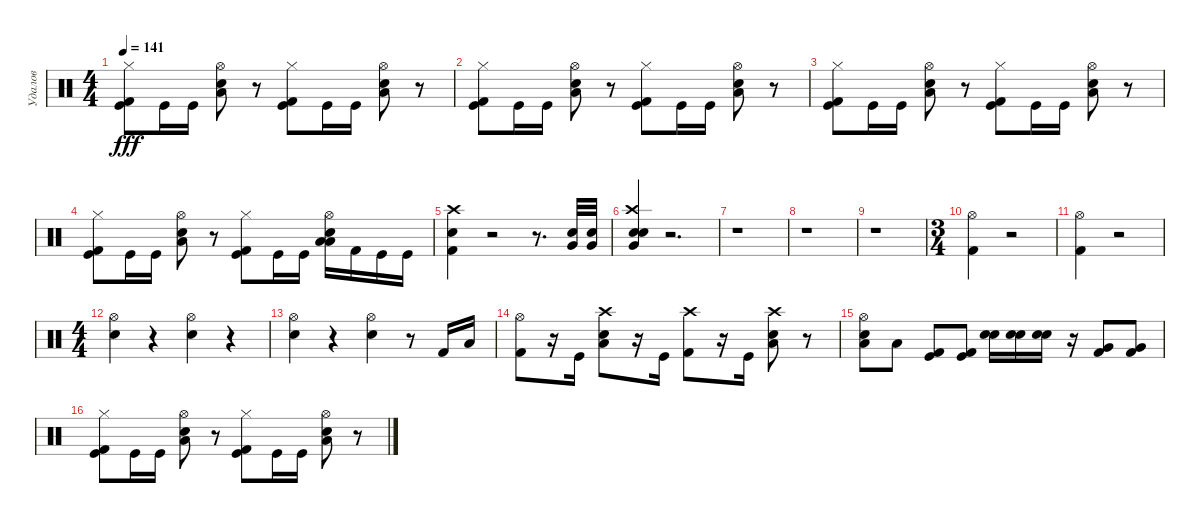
\track ("Удалов" "Удалов") {instrument percussion}
\staff {score}
\articulation defaults
\ts (4 4)
\tempo 141
\clef neutral
\ks c
("Hi-Hat (closed)" "Kick (hit)" "Kick (hit) 2").8{dy fff} "Kick (hit)".16 "Kick (hit)".16 ("Hi-Hat (open)" "Low Tom (hit)" "Snare (hit) 2").8 r.8 ("Hi-Hat (closed)" "Kick (hit)" "Kick (hit) 2").8 "Kick (hit)".16 "Kick (hit)".16 ("Hi-Hat (open)" "Low Tom (hit)" "Snare (hit) 2").8 r.8 |
("Hi-Hat (closed)" "Kick (hit)" "Kick (hit) 2").8 "Kick (hit)".16 "Kick (hit)".16 ("Hi-Hat (open)" "Low Tom (hit)" "Snare (hit) 2").8 r.8 ("Hi-Hat (closed)" "Kick (hit)" "Kick (hit) 2").8 "Kick (hit)".16 "Kick (hit)".16 ("Hi-Hat (open)" "Low Tom (hit)" "Snare (hit) 2").8 r.8 |
("Hi-Hat (closed)" "Kick (hit)" "Kick (hit) 2").8 "Kick (hit)".16 "Kick (hit)".16 ("Hi-Hat (open)" "Low Tom (hit)" "Snare (hit) 2").8 r.8 ("Hi-Hat (closed)" "Kick (hit)" "Kick (hit) 2").8 "Kick (hit)".16 "Kick (hit)".16 ("Hi-Hat (open)" "Low Tom (hit)" "Snare (hit) 2").8 r.8 |
("Hi-Hat (closed)" "Kick (hit)" "Kick (hit) 2").8 "Kick (hit)".16 "Kick (hit)".16 ("Hi-Hat (open)" "Low Tom (hit)" "Snare (hit) 2").8 r.8 ("Hi-Hat (closed)" "Kick (hit)" "Kick (hit) 2").8 "Kick (hit)".16 "Kick (hit)".16 ("Low Floor Tom (hit)" "Hi-Hat (open)" "Low Tom (hit)" "Snare (hit) 2").16 "Kick (hit) 2".16 "Kick (hit)".16 "Kick (hit)".16 |
("Crash high (hit)" "Snare (hit) 2" "Kick (hit) 2").4 r.2 r.8{d} ("Electric Snare (hit)" "Very Low Tom (hit)").32 ("Electric Snare (hit)" "Very Low Tom (hit)").32 |
("Crash high (hit)" "Very Low Tom (hit)" "Snare (hit) 2" "Electric Snare (hit)").4 r.2{d} |
r.1 |
r.1 |
r.1 |
\ts (3 4)
("Hi-Hat (open)" "Kick (hit) 2").4 r.2 |
("Hi-Hat (open)" "Kick (hit) 2").4 r.2 |
\ts (4 4)
("Hi-Hat (open)" "Snare (hit) 2").4 r.4 ("Hi-Hat (open)" "Snare (hit) 2").4 r.4 |
("Hi-Hat (open)" "Snare (hit) 2").4 r.4 ("Hi-Hat (open)" "Snare (hit) 2").4 r.8 "Kick (hit) 2".16 "Low Floor Tom (hit)".16 |
("Kick (hit) 2" "Hi-Hat (open)").8 r.16 "Kick (hit)".16 ("Low Tom (hit)" "Snare (hit) 2" "Crash high (hit)").8 r.16 "Kick (hit)".16 ("Kick (hit) 2" "Crash high (hit)").8 r.16 "Kick (hit)".16 ("Low Tom (hit)" "Snare (hit) 2" "Crash high (hit)").8 r.8 |
("Hi-Hat (open)" "Snare (hit) 2" "Low Tom (hit)").8 "Low Floor Tom (hit)".8 ("Kick (hit)" "Kick (hit) 2").8 ("Kick (hit)" "Kick (hit) 2").8 ("Electric Snare (hit)" "Snare (hit) 2").16 ("Electric Snare (hit)" "Snare (hit) 2").16 ("Snare (hit) 2" "Electric Snare (hit)").16 r.16 ("Kick (hit) 2" "Very Low Tom (hit)").8 ("Kick (hit) 2" "Very Low Tom (hit)").8 |
("Hi-Hat (closed)" "Kick (hit)" "Kick (hit) 2").8 "Kick (hit)".16 "Kick (hit)".16 ("Hi-Hat (open)" "Low Tom (hit)" "Snare (hit) 2").8 r.8 ("Hi-Hat (closed)" "Kick (hit)" "Kick (hit) 2").8 "Kick (hit)".16 "Kick (hit)".16 ("Hi-Hat (open)" "Low Tom (hit)" "Snare (hit) 2").8 r.8
